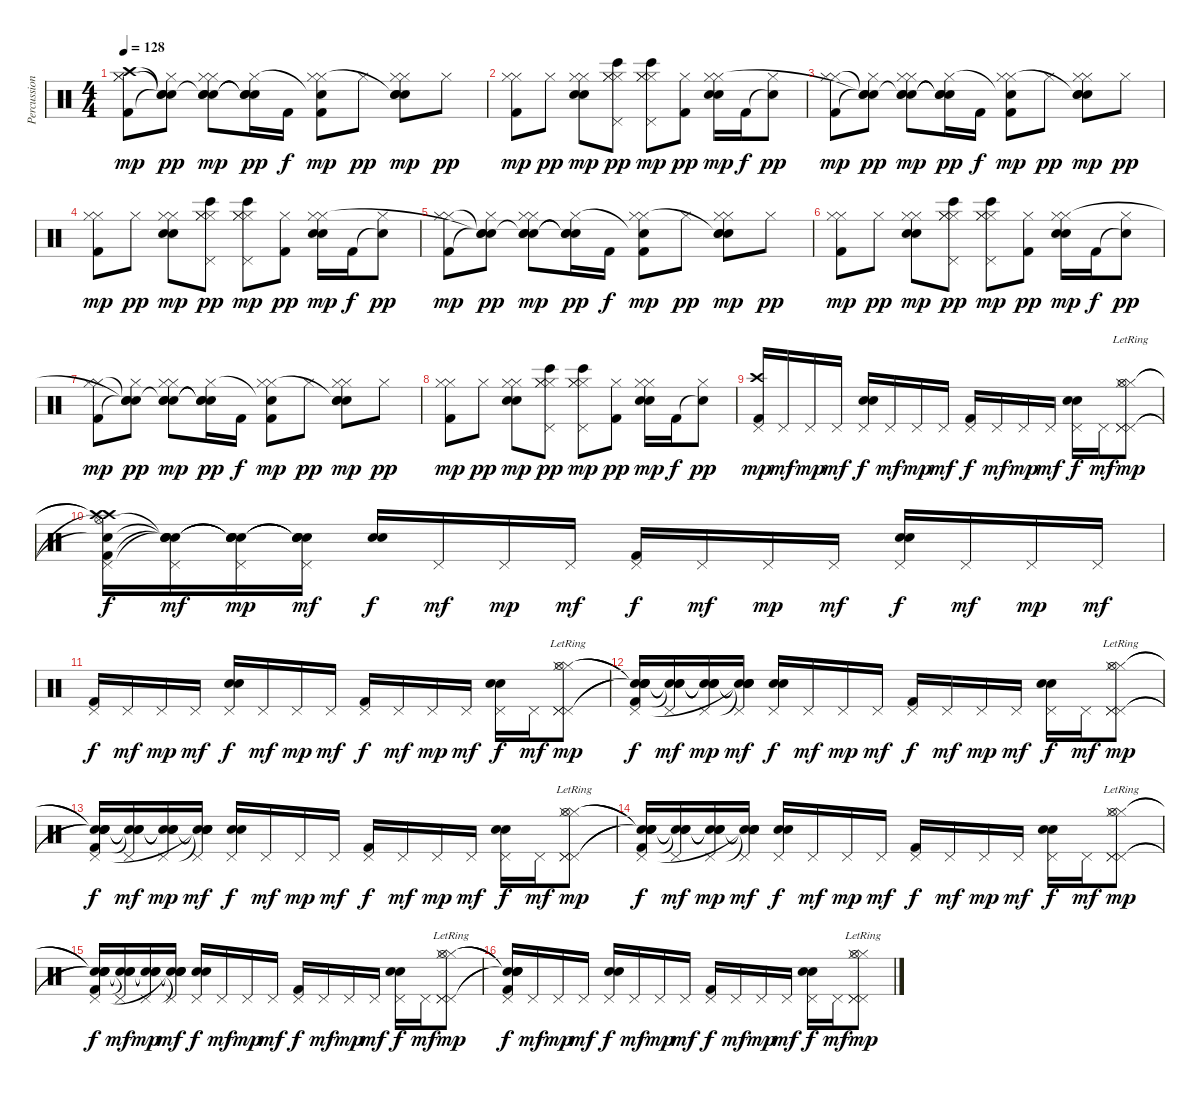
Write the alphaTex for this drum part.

\track ("Percussion" "Percussion") {instrument percussion}
\staff {score}
\articulation defaults
\ts (4 4)
\tempo 128
\clef neutral
\ks c
("Kick (hit) 2" "Hi-Hat (closed)" "Crash high (hit)" "Hi-Hat (closed)").8{dy mp} ("Snare (hit)"{t} "Hi-Hat (closed)" "Snare (hit)"{t} "Snare (hit)"{t}).8{dy pp} ("Electric Snare (hit)" "Snare (hit) 2" "Hi-Hat (closed)" "Snare (hit)"{t} "Hi-Hat (closed)").8{dy mp} ("Snare (hit)"{t} "Snare (hit)"{t} "Hi-Hat (closed)" "Snare (hit)"{t}).16{dy pp} "Kick (hit) 2".16{dy f} ("Kick (hit) 2" "Hi-Hat (closed)" "Snare (hit)"{t} "Hi-Hat (closed)").8{dy mp} "Hi-Hat (closed)".8{dy pp} ("Electric Snare (hit)" "Snare (hit) 2" "Hi-Hat (closed)" "Snare (hit)"{t} "Hi-Hat (closed)").8{dy mp} "Hi-Hat (closed)".8{dy pp} |
("Kick (hit) 2" "Hi-Hat (closed)" "Hi-Hat (closed)").8{dy mp} "Hi-Hat (closed)".8{dy pp} ("Electric Snare (hit)" "Snare (hit) 2" "Hi-Hat (closed)" "Hi-Hat (closed)").8{dy mp} ("Pedal Hi-Hat (hit)" "Hi-Hat (closed)" "Bongo High (hit)" "Hi-Hat (closed)" "Hi-Hat (closed)").8{dy pp} ("Pedal Hi-Hat (hit)" "Hi-Hat (closed)" "Bongo High (hit)" "Hi-Hat (closed)" "Hi-Hat (closed)").8{dy mp} ("Kick (hit) 2" "Hi-Hat (closed)").8{dy pp} ("Electric Snare (hit)" "Snare (hit) 2" "Hi-Hat (closed)" "Hi-Hat (closed)").16{dy mp} "Kick (hit) 2".16{dy f} ("Snare (hit)"{t} "Hi-Hat (closed)").8{dy pp} |
("Kick (hit) 2" "Hi-Hat (closed)" "Hi-Hat (closed)").8{dy mp} ("Snare (hit)"{t} "Hi-Hat (closed)" "Snare (hit)"{t} "Snare (hit)"{t}).8{dy pp} ("Electric Snare (hit)" "Snare (hit) 2" "Hi-Hat (closed)" "Snare (hit)"{t} "Hi-Hat (closed)").8{dy mp} ("Snare (hit)"{t} "Snare (hit)"{t} "Hi-Hat (closed)" "Snare (hit)"{t}).16{dy pp} "Kick (hit) 2".16{dy f} ("Kick (hit) 2" "Hi-Hat (closed)" "Snare (hit)"{t} "Hi-Hat (closed)").8{dy mp} "Hi-Hat (closed)".8{dy pp} ("Electric Snare (hit)" "Snare (hit) 2" "Hi-Hat (closed)" "Snare (hit)"{t} "Hi-Hat (closed)").8{dy mp} "Hi-Hat (closed)".8{dy pp} |
("Kick (hit) 2" "Hi-Hat (closed)" "Hi-Hat (closed)").8{dy mp} "Hi-Hat (closed)".8{dy pp} ("Electric Snare (hit)" "Snare (hit) 2" "Hi-Hat (closed)" "Hi-Hat (closed)").8{dy mp} ("Pedal Hi-Hat (hit)" "Hi-Hat (closed)" "Bongo High (hit)" "Hi-Hat (closed)" "Hi-Hat (closed)").8{dy pp} ("Pedal Hi-Hat (hit)" "Hi-Hat (closed)" "Bongo High (hit)" "Hi-Hat (closed)" "Hi-Hat (closed)").8{dy mp} ("Kick (hit) 2" "Hi-Hat (closed)").8{dy pp} ("Electric Snare (hit)" "Snare (hit) 2" "Hi-Hat (closed)" "Hi-Hat (closed)").16{dy mp} "Kick (hit) 2".16{dy f} ("Snare (hit)"{t} "Hi-Hat (closed)").8{dy pp} |
("Kick (hit) 2" "Hi-Hat (closed)" "Hi-Hat (closed)").8{dy mp} ("Snare (hit)"{t} "Hi-Hat (closed)" "Snare (hit)"{t} "Snare (hit)"{t}).8{dy pp} ("Electric Snare (hit)" "Snare (hit) 2" "Hi-Hat (closed)" "Snare (hit)"{t} "Hi-Hat (closed)").8{dy mp} ("Snare (hit)"{t} "Snare (hit)"{t} "Hi-Hat (closed)" "Snare (hit)"{t}).16{dy pp} "Kick (hit) 2".16{dy f} ("Kick (hit) 2" "Hi-Hat (closed)" "Snare (hit)"{t} "Hi-Hat (closed)").8{dy mp} "Hi-Hat (closed)".8{dy pp} ("Electric Snare (hit)" "Snare (hit) 2" "Hi-Hat (closed)" "Snare (hit)"{t} "Hi-Hat (closed)").8{dy mp} "Hi-Hat (closed)".8{dy pp} |
("Kick (hit) 2" "Hi-Hat (closed)" "Hi-Hat (closed)").8{dy mp} "Hi-Hat (closed)".8{dy pp} ("Electric Snare (hit)" "Snare (hit) 2" "Hi-Hat (closed)" "Hi-Hat (closed)").8{dy mp} ("Pedal Hi-Hat (hit)" "Hi-Hat (closed)" "Bongo High (hit)" "Hi-Hat (closed)" "Hi-Hat (closed)").8{dy pp} ("Pedal Hi-Hat (hit)" "Hi-Hat (closed)" "Bongo High (hit)" "Hi-Hat (closed)" "Hi-Hat (closed)").8{dy mp} ("Kick (hit) 2" "Hi-Hat (closed)").8{dy pp} ("Electric Snare (hit)" "Snare (hit) 2" "Hi-Hat (closed)" "Hi-Hat (closed)").16{dy mp} "Kick (hit) 2".16{dy f} ("Snare (hit)"{t} "Hi-Hat (closed)").8{dy pp} |
("Kick (hit) 2" "Hi-Hat (closed)" "Hi-Hat (closed)").8{dy mp} ("Snare (hit)"{t} "Hi-Hat (closed)" "Snare (hit)"{t} "Snare (hit)"{t}).8{dy pp} ("Electric Snare (hit)" "Snare (hit) 2" "Hi-Hat (closed)" "Snare (hit)"{t} "Hi-Hat (closed)").8{dy mp} ("Snare (hit)"{t} "Snare (hit)"{t} "Hi-Hat (closed)" "Snare (hit)"{t}).16{dy pp} "Kick (hit) 2".16{dy f} ("Kick (hit) 2" "Hi-Hat (closed)" "Snare (hit)"{t} "Hi-Hat (closed)").8{dy mp} "Hi-Hat (closed)".8{dy pp} ("Electric Snare (hit)" "Snare (hit) 2" "Hi-Hat (closed)" "Snare (hit)"{t} "Hi-Hat (closed)").8{dy mp} "Hi-Hat (closed)".8{dy pp} |
("Kick (hit) 2" "Hi-Hat (closed)" "Hi-Hat (closed)").8{dy mp} "Hi-Hat (closed)".8{dy pp} ("Electric Snare (hit)" "Snare (hit) 2" "Hi-Hat (closed)" "Hi-Hat (closed)").8{dy mp} ("Pedal Hi-Hat (hit)" "Hi-Hat (closed)" "Bongo High (hit)" "Hi-Hat (closed)" "Hi-Hat (closed)").8{dy pp} ("Pedal Hi-Hat (hit)" "Hi-Hat (closed)" "Bongo High (hit)" "Hi-Hat (closed)" "Hi-Hat (closed)").8{dy mp} ("Kick (hit) 2" "Hi-Hat (closed)").8{dy pp} ("Electric Snare (hit)" "Snare (hit) 2" "Hi-Hat (closed)" "Hi-Hat (closed)").16{dy mp} "Kick (hit) 2".16{dy f} ("Snare (hit)"{t} "Hi-Hat (closed)").8{dy pp} |
("Kick (hit) 2" "Pedal Hi-Hat (hit)" "Crash high (hit)").16{dy mp} "Pedal Hi-Hat (hit)".16{dy mf} "Pedal Hi-Hat (hit)".16{dy mp} "Pedal Hi-Hat (hit)".16{dy mf} ("Electric Snare (hit)" "Snare (hit) 2" "Pedal Hi-Hat (hit)").16{dy f} "Pedal Hi-Hat (hit)".16{dy mf} "Pedal Hi-Hat (hit)".16{dy mp} "Pedal Hi-Hat (hit)".16{dy mf} ("Kick (hit) 2" "Pedal Hi-Hat (hit)").16{dy f} "Pedal Hi-Hat (hit)".16{dy mf} "Pedal Hi-Hat (hit)".16{dy mp} "Pedal Hi-Hat (hit)".16{dy mf} ("Electric Snare (hit)" "Snare (hit) 2" "Pedal Hi-Hat (hit)").16{dy f} "Pedal Hi-Hat (hit)".16{dy mf} ("Pedal Hi-Hat (hit)"{lr} "Pedal Hi-Hat (hit)"{lr} "Pedal Hi-Hat (hit)"{lr} "Hi-Hat (closed)"{lr} "Hi-Hat (closed)"{lr} "Hi-Hat (open)"{lr}).8{dy mp} |
("Kick (hit) 2" "Snare (hit)"{t} "Hi-Hat (open)"{t} "Crash high (hit)"{t} "Pedal Hi-Hat (hit)" "Crash high (hit)"{t}).16{dy f} ("Snare (hit)"{t} "Snare (hit)"{t} "Snare (hit)"{t} "Pedal Hi-Hat (hit)" "Snare (hit)"{t}).16{dy mf} ("Snare (hit)"{t} "Snare (hit)"{t} "Snare (hit)"{t} "Pedal Hi-Hat (hit)" "Snare (hit)"{t}).16{dy mp} ("Snare (hit)"{t} "Snare (hit)"{t} "Snare (hit)"{t} "Pedal Hi-Hat (hit)" "Snare (hit)"{t}).16{dy mf} ("Electric Snare (hit)" "Snare (hit) 2").16{dy f} "Pedal Hi-Hat (hit)".16{dy mf} "Pedal Hi-Hat (hit)".16{dy mp} "Pedal Hi-Hat (hit)".16{dy mf} ("Kick (hit) 2" "Pedal Hi-Hat (hit)").16{dy f} "Pedal Hi-Hat (hit)".16{dy mf} "Pedal Hi-Hat (hit)".16{dy mp} "Pedal Hi-Hat (hit)".16{dy mf} ("Electric Snare (hit)" "Snare (hit) 2" "Pedal Hi-Hat (hit)").16{dy f} "Pedal Hi-Hat (hit)".16{dy mf} "Pedal Hi-Hat (hit)".16{dy mp} "Pedal Hi-Hat (hit)".16{dy mf} |
("Kick (hit) 2" "Pedal Hi-Hat (hit)").16{dy f} "Pedal Hi-Hat (hit)".16{dy mf} "Pedal Hi-Hat (hit)".16{dy mp} "Pedal Hi-Hat (hit)".16{dy mf} ("Electric Snare (hit)" "Snare (hit) 2" "Pedal Hi-Hat (hit)").16{dy f} "Pedal Hi-Hat (hit)".16{dy mf} "Pedal Hi-Hat (hit)".16{dy mp} "Pedal Hi-Hat (hit)".16{dy mf} ("Kick (hit) 2" "Pedal Hi-Hat (hit)").16{dy f} "Pedal Hi-Hat (hit)".16{dy mf} "Pedal Hi-Hat (hit)".16{dy mp} "Pedal Hi-Hat (hit)".16{dy mf} ("Electric Snare (hit)" "Snare (hit) 2" "Pedal Hi-Hat (hit)").16{dy f} "Pedal Hi-Hat (hit)".16{dy mf} ("Pedal Hi-Hat (hit)"{lr} "Pedal Hi-Hat (hit)"{lr} "Pedal Hi-Hat (hit)"{lr} "Hi-Hat (closed)"{lr} "Hi-Hat (closed)"{lr} "Hi-Hat (open)"{lr}).8{dy mp} |
("Kick (hit) 2" "Snare (hit)"{t} "Snare (hit)"{t} "Snare (hit)"{t} "Pedal Hi-Hat (hit)" "Snare (hit)"{t}).16{dy f} ("Snare (hit)"{t} "Snare (hit)"{t} "Pedal Hi-Hat (hit)" "Snare (hit)"{t}).16{dy mf} ("Snare (hit)"{t} "Snare (hit)"{t} "Pedal Hi-Hat (hit)" "Snare (hit)"{t}).16{dy mp} ("Snare (hit)"{t} "Snare (hit)"{t} "Snare (hit)"{t} "Pedal Hi-Hat (hit)" "Snare (hit)"{t}).16{dy mf} ("Electric Snare (hit)" "Snare (hit) 2" "Pedal Hi-Hat (hit)").16{dy f} "Pedal Hi-Hat (hit)".16{dy mf} "Pedal Hi-Hat (hit)".16{dy mp} "Pedal Hi-Hat (hit)".16{dy mf} ("Kick (hit) 2" "Pedal Hi-Hat (hit)").16{dy f} "Pedal Hi-Hat (hit)".16{dy mf} "Pedal Hi-Hat (hit)".16{dy mp} "Pedal Hi-Hat (hit)".16{dy mf} ("Electric Snare (hit)" "Snare (hit) 2" "Pedal Hi-Hat (hit)").16{dy f} "Pedal Hi-Hat (hit)".16{dy mf} ("Pedal Hi-Hat (hit)"{lr} "Pedal Hi-Hat (hit)"{lr} "Pedal Hi-Hat (hit)"{lr} "Hi-Hat (closed)"{lr} "Hi-Hat (closed)"{lr} "Hi-Hat (open)"{lr}).8{dy mp} |
("Kick (hit) 2" "Snare (hit)"{t} "Snare (hit)"{t} "Snare (hit)"{t} "Pedal Hi-Hat (hit)" "Snare (hit)"{t}).16{dy f} ("Snare (hit)"{t} "Snare (hit)"{t} "Pedal Hi-Hat (hit)" "Snare (hit)"{t}).16{dy mf} ("Snare (hit)"{t} "Snare (hit)"{t} "Pedal Hi-Hat (hit)" "Snare (hit)"{t}).16{dy mp} ("Snare (hit)"{t} "Snare (hit)"{t} "Snare (hit)"{t} "Pedal Hi-Hat (hit)" "Snare (hit)"{t}).16{dy mf} ("Electric Snare (hit)" "Snare (hit) 2" "Pedal Hi-Hat (hit)").16{dy f} "Pedal Hi-Hat (hit)".16{dy mf} "Pedal Hi-Hat (hit)".16{dy mp} "Pedal Hi-Hat (hit)".16{dy mf} ("Kick (hit) 2" "Pedal Hi-Hat (hit)").16{dy f} "Pedal Hi-Hat (hit)".16{dy mf} "Pedal Hi-Hat (hit)".16{dy mp} "Pedal Hi-Hat (hit)".16{dy mf} ("Electric Snare (hit)" "Snare (hit) 2" "Pedal Hi-Hat (hit)").16{dy f} "Pedal Hi-Hat (hit)".16{dy mf} ("Pedal Hi-Hat (hit)"{lr} "Pedal Hi-Hat (hit)"{lr} "Pedal Hi-Hat (hit)"{lr} "Hi-Hat (closed)"{lr} "Hi-Hat (closed)"{lr} "Hi-Hat (open)"{lr}).8{dy mp} |
("Kick (hit) 2" "Snare (hit)"{t} "Snare (hit)"{t} "Snare (hit)"{t} "Pedal Hi-Hat (hit)" "Snare (hit)"{t}).16{dy f} ("Snare (hit)"{t} "Snare (hit)"{t} "Pedal Hi-Hat (hit)" "Snare (hit)"{t}).16{dy mf} ("Snare (hit)"{t} "Snare (hit)"{t} "Pedal Hi-Hat (hit)" "Snare (hit)"{t}).16{dy mp} ("Snare (hit)"{t} "Snare (hit)"{t} "Snare (hit)"{t} "Pedal Hi-Hat (hit)" "Snare (hit)"{t}).16{dy mf} ("Electric Snare (hit)" "Snare (hit) 2" "Pedal Hi-Hat (hit)").16{dy f} "Pedal Hi-Hat (hit)".16{dy mf} "Pedal Hi-Hat (hit)".16{dy mp} "Pedal Hi-Hat (hit)".16{dy mf} ("Kick (hit) 2" "Pedal Hi-Hat (hit)").16{dy f} "Pedal Hi-Hat (hit)".16{dy mf} "Pedal Hi-Hat (hit)".16{dy mp} "Pedal Hi-Hat (hit)".16{dy mf} ("Electric Snare (hit)" "Snare (hit) 2" "Pedal Hi-Hat (hit)").16{dy f} "Pedal Hi-Hat (hit)".16{dy mf} ("Pedal Hi-Hat (hit)"{lr} "Pedal Hi-Hat (hit)"{lr} "Pedal Hi-Hat (hit)"{lr} "Hi-Hat (closed)"{lr} "Hi-Hat (closed)"{lr} "Hi-Hat (open)"{lr}).8{dy mp} |
("Kick (hit) 2" "Snare (hit)"{t} "Snare (hit)"{t} "Snare (hit)"{t} "Pedal Hi-Hat (hit)" "Snare (hit)"{t}).16{dy f} ("Snare (hit)"{t} "Snare (hit)"{t} "Pedal Hi-Hat (hit)" "Snare (hit)"{t}).16{dy mf} ("Snare (hit)"{t} "Snare (hit)"{t} "Pedal Hi-Hat (hit)" "Snare (hit)"{t}).16{dy mp} ("Snare (hit)"{t} "Snare (hit)"{t} "Snare (hit)"{t} "Pedal Hi-Hat (hit)" "Snare (hit)"{t}).16{dy mf} ("Electric Snare (hit)" "Snare (hit) 2" "Pedal Hi-Hat (hit)").16{dy f} "Pedal Hi-Hat (hit)".16{dy mf} "Pedal Hi-Hat (hit)".16{dy mp} "Pedal Hi-Hat (hit)".16{dy mf} ("Kick (hit) 2" "Pedal Hi-Hat (hit)").16{dy f} "Pedal Hi-Hat (hit)".16{dy mf} "Pedal Hi-Hat (hit)".16{dy mp} "Pedal Hi-Hat (hit)".16{dy mf} ("Electric Snare (hit)" "Snare (hit) 2" "Pedal Hi-Hat (hit)").16{dy f} "Pedal Hi-Hat (hit)".16{dy mf} ("Pedal Hi-Hat (hit)"{lr} "Pedal Hi-Hat (hit)"{lr} "Pedal Hi-Hat (hit)"{lr} "Hi-Hat (closed)"{lr} "Hi-Hat (closed)"{lr} "Hi-Hat (open)"{lr}).8{dy mp} |
("Kick (hit) 2" "Snare (hit)"{t} "Snare (hit)"{t} "Snare (hit)"{t} "Pedal Hi-Hat (hit)" "Snare (hit)"{t}).16{dy f} "Pedal Hi-Hat (hit)".16{dy mf} "Pedal Hi-Hat (hit)".16{dy mp} "Pedal Hi-Hat (hit)".16{dy mf} ("Electric Snare (hit)" "Snare (hit) 2" "Pedal Hi-Hat (hit)").16{dy f} "Pedal Hi-Hat (hit)".16{dy mf} "Pedal Hi-Hat (hit)".16{dy mp} "Pedal Hi-Hat (hit)".16{dy mf} ("Kick (hit) 2" "Pedal Hi-Hat (hit)").16{dy f} "Pedal Hi-Hat (hit)".16{dy mf} "Pedal Hi-Hat (hit)".16{dy mp} "Pedal Hi-Hat (hit)".16{dy mf} ("Electric Snare (hit)" "Snare (hit) 2" "Pedal Hi-Hat (hit)").16{dy f} "Pedal Hi-Hat (hit)".16{dy mf} ("Pedal Hi-Hat (hit)"{lr} "Pedal Hi-Hat (hit)"{lr} "Pedal Hi-Hat (hit)"{lr} "Hi-Hat (closed)"{lr} "Hi-Hat (closed)"{lr} "Hi-Hat (open)"{lr}).8{dy mp}
